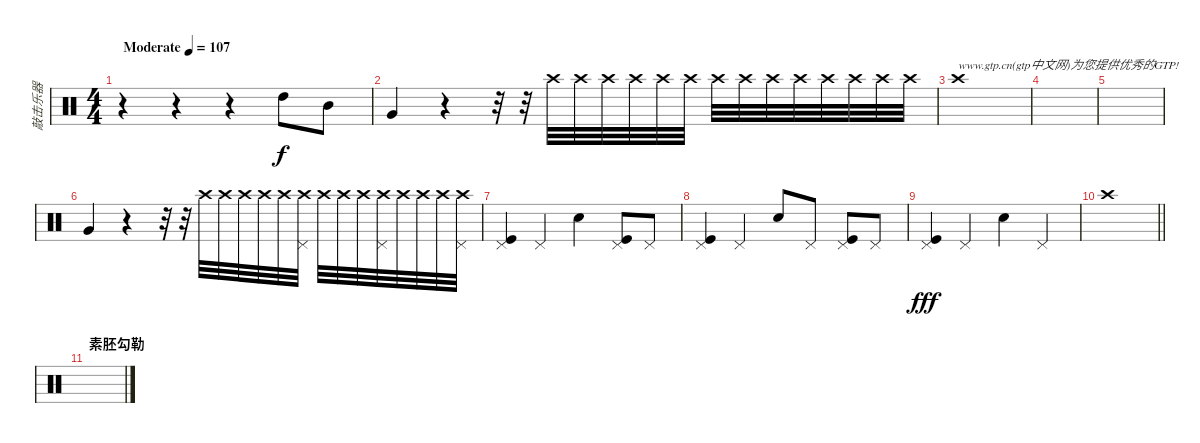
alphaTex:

\track ("敲击乐器" "敲击乐器") {instrument percussion}
\staff {score}
\articulation defaults
\ts (4 4)
\tempo (107 "Moderate")
\clef neutral
\ks c
r.4{dy f} r.4 r.4 "High Tom (hit)".8 "Mid Tom (hit)".8 |
"Very Low Tom (hit)".4 r.4 r.32 r.32 "Crash high (hit)".32{volume 0} "Crash high (hit)".32{volume 16} "Crash high (hit)".32 "Crash high (hit)".32 "Crash high (hit)".32 "Crash high (hit)".32 "Crash high (hit)".32 "Crash high (hit)".32 "Crash high (hit)".32 "Crash high (hit)".32 "Crash high (hit)".32 "Crash high (hit)".32 "Crash high (hit)".32 "Crash high (hit)".32 |
"Crash high (hit)".1{txt "www.gtp.cn(gtp中文网)为您提供优秀的GTP!"} |
|
|
"Very Low Tom (hit)".4 r.4 r.32 r.32 "Crash high (hit)".32{volume 0} "Crash high (hit)".32{volume 16} "Crash high (hit)".32 "Crash high (hit)".32 "Crash high (hit)".32 ("Crash high (hit)" "Pedal Hi-Hat (hit)").32 "Crash high (hit)".32 "Crash high (hit)".32 "Crash high (hit)".32 ("Crash high (hit)" "Pedal Hi-Hat (hit)").32 "Crash high (hit)".32 "Crash high (hit)".32 "Crash high (hit)".32 ("Crash high (hit)" "Pedal Hi-Hat (hit)").32 |
("Kick (hit)" "Pedal Hi-Hat (hit)").4 "Pedal Hi-Hat (hit)".4 "Snare (hit) 2".4 ("Kick (hit)" "Pedal Hi-Hat (hit)").8 "Pedal Hi-Hat (hit)".8 |
("Kick (hit)" "Pedal Hi-Hat (hit)").4 "Pedal Hi-Hat (hit)".4 "Snare (hit) 2".8 "Pedal Hi-Hat (hit)".8 ("Kick (hit)" "Pedal Hi-Hat (hit)").8 "Pedal Hi-Hat (hit)".8 |
("Kick (hit)" "Pedal Hi-Hat (hit)").4{dy fff} "Pedal Hi-Hat (hit)".4 "Snare (hit) 2".4 "Pedal Hi-Hat (hit)".4 |
\barLineRight lightlight "Crash high (hit)".1
|
\section ("" "素胚勾勒")
